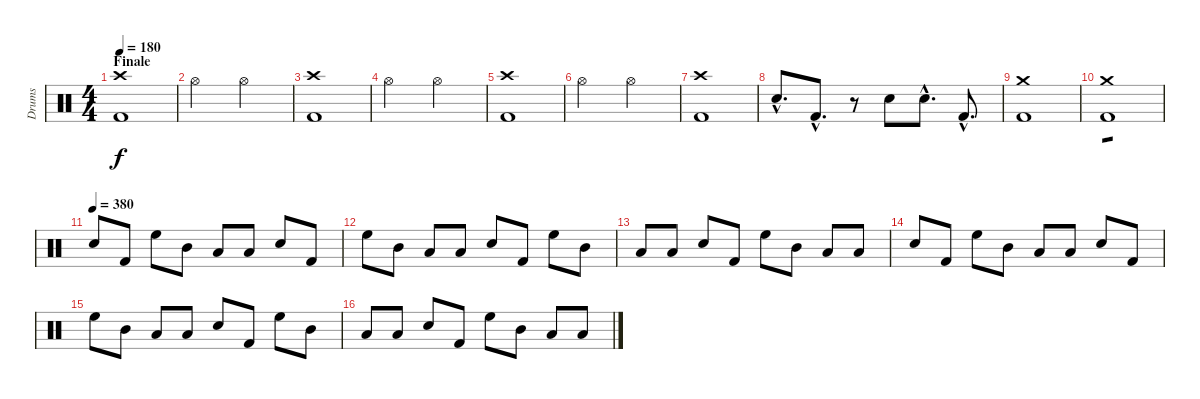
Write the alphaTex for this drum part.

\track ("Drums" "Drums") {instrument percussion}
\staff {score}
\articulation defaults
\ts (4 4)
\section ("" "Finale")
\tempo 180
\clef neutral
\ks c
("Crash high (hit)" "Kick (hit) 2").1{dy f} |
"Hi-Hat (open)".2 "Hi-Hat (open)".2 |
("Crash high (hit)" "Kick (hit) 2").1 |
"Hi-Hat (open)".2 "Hi-Hat (open)".2 |
("Crash high (hit)" "Kick (hit) 2").1 |
"Hi-Hat (open)".2 "Hi-Hat (open)".2 |
("Crash high (hit)" "Kick (hit) 2").1 |
"Snare (hit) 2"{hac}.8{d} "Kick (hit) 2"{hac}.8{d} r.8 "Snare (hit) 2".8 "Snare (hit) 2"{hac}.8{d} "Kick (hit) 2"{hac}.8{d} |
("Crash medium (hit)" "Kick (hit) 2").1 |
("Crash medium (hit)" "Kick (hit) 2").1{tp 1} |
\tempo (380)
"Snare (hit) 2".8 "Kick (hit) 2".8 "High Floor Tom (hit)".8 "Mid Tom (hit)".8 "Low Tom (hit)".8 "Low Floor Tom (hit)".8 "Snare (hit) 2".8 "Kick (hit) 2".8 |
"High Floor Tom (hit)".8 "Mid Tom (hit)".8 "Low Tom (hit)".8 "Low Floor Tom (hit)".8 "Snare (hit) 2".8 "Kick (hit) 2".8 "High Floor Tom (hit)".8 "Mid Tom (hit)".8 |
"Low Tom (hit)".8 "Low Floor Tom (hit)".8 "Snare (hit) 2".8 "Kick (hit) 2".8 "High Floor Tom (hit)".8 "Mid Tom (hit)".8 "Low Tom (hit)".8 "Low Floor Tom (hit)".8 |
"Snare (hit) 2".8 "Kick (hit) 2".8 "High Floor Tom (hit)".8 "Mid Tom (hit)".8 "Low Tom (hit)".8 "Low Floor Tom (hit)".8 "Snare (hit) 2".8 "Kick (hit) 2".8 |
"High Floor Tom (hit)".8 "Mid Tom (hit)".8 "Low Tom (hit)".8 "Low Floor Tom (hit)".8 "Snare (hit) 2".8 "Kick (hit) 2".8 "High Floor Tom (hit)".8 "Mid Tom (hit)".8 |
"Low Tom (hit)".8 "Low Floor Tom (hit)".8 "Snare (hit) 2".8 "Kick (hit) 2".8 "High Floor Tom (hit)".8 "Mid Tom (hit)".8 "Low Tom (hit)".8 "Low Floor Tom (hit)".8
